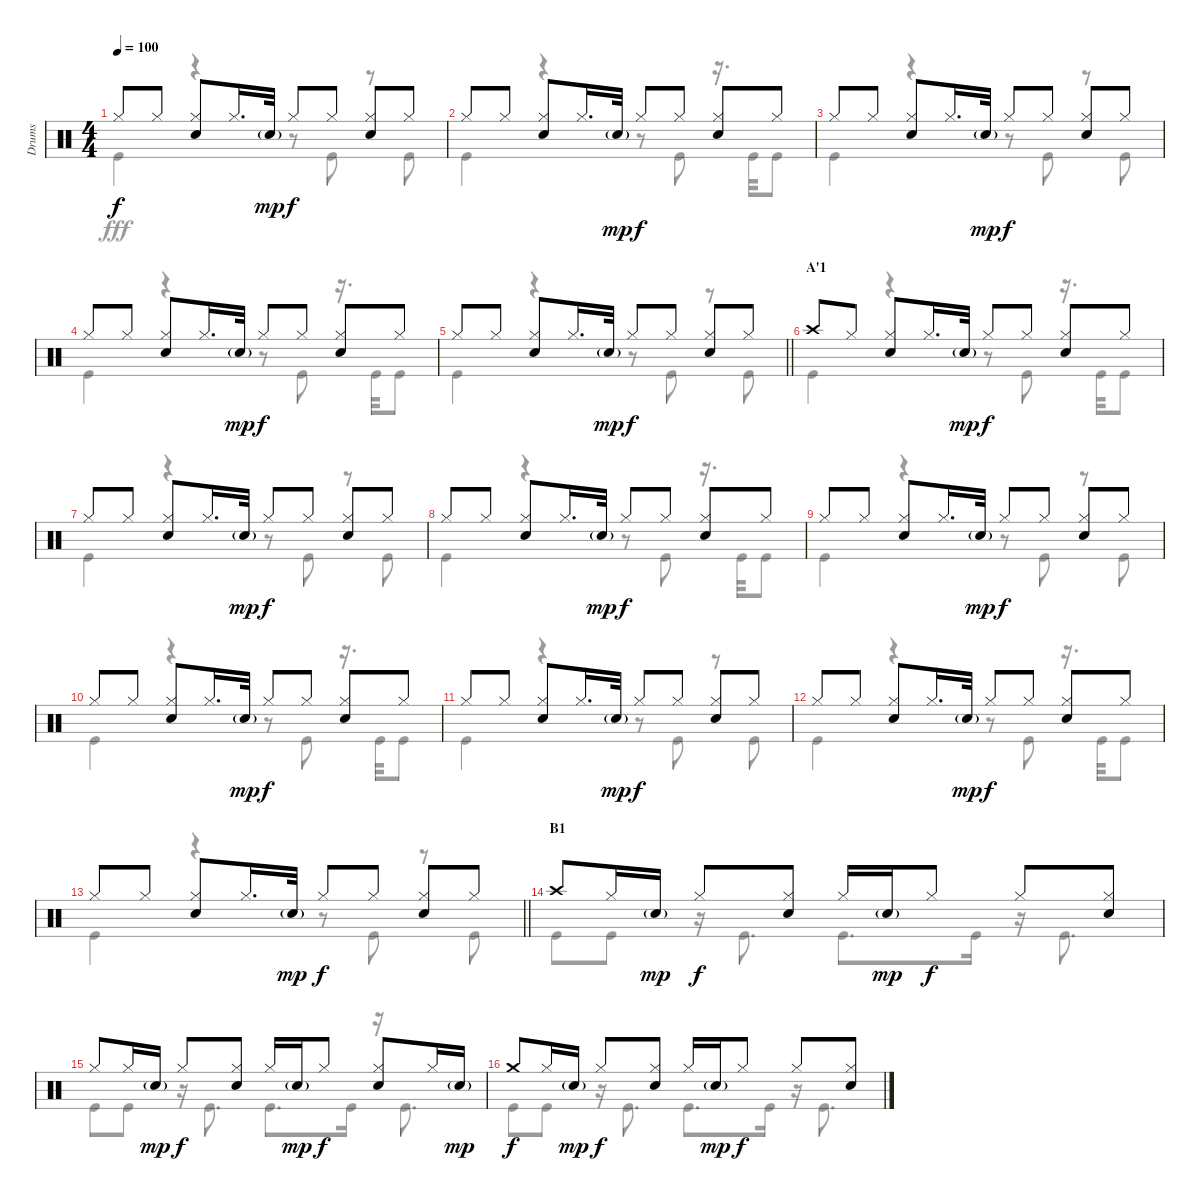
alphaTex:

\track ("Drums" "Drums") {instrument percussion}
\staff {score}
\articulation defaults
\voice
\ts (4 4)
\tempo 100
\clef neutral
\ks c "Hi-Hat (closed)".8{dy f} "Hi-Hat (closed)".8
("Hi-Hat (closed)" "Snare (hit) 2").8 "Hi-Hat (closed)".16{d} "Snare (hit) 2"{g}.32{dy mp} "Hi-Hat (closed)".8{dy f} "Hi-Hat (closed)".8 ("Hi-Hat (closed)" "Snare (hit) 2").8 "Hi-Hat (closed)".8 |
"Hi-Hat (closed)".8 "Hi-Hat (closed)".8 ("Hi-Hat (closed)" "Snare (hit) 2").8 "Hi-Hat (closed)".16{d} "Snare (hit) 2"{g}.32{dy mp} "Hi-Hat (closed)".8{dy f} "Hi-Hat (closed)".8 ("Hi-Hat (closed)" "Snare (hit) 2").8 "Hi-Hat (closed)".8 |
"Hi-Hat (closed)".8 "Hi-Hat (closed)".8 ("Hi-Hat (closed)" "Snare (hit) 2").8 "Hi-Hat (closed)".16{d} "Snare (hit) 2"{g}.32{dy mp} "Hi-Hat (closed)".8{dy f} "Hi-Hat (closed)".8 ("Hi-Hat (closed)" "Snare (hit) 2").8 "Hi-Hat (closed)".8 |
"Hi-Hat (closed)".8 "Hi-Hat (closed)".8 ("Hi-Hat (closed)" "Snare (hit) 2").8 "Hi-Hat (closed)".16{d} "Snare (hit) 2"{g}.32{dy mp} "Hi-Hat (closed)".8{dy f} "Hi-Hat (closed)".8 ("Hi-Hat (closed)" "Snare (hit) 2").8 "Hi-Hat (closed)".8 |
\barLineRight lightlight "Hi-Hat (closed)".8 "Hi-Hat (closed)".8
("Hi-Hat (closed)" "Snare (hit) 2").8 "Hi-Hat (closed)".16{d} "Snare (hit) 2"{g}.32{dy mp} "Hi-Hat (closed)".8{dy f} "Hi-Hat (closed)".8 ("Hi-Hat (closed)" "Snare (hit) 2").8 "Hi-Hat (closed)".8 |
\section ("" "A'1")
"Crash high (hit)".8 "Hi-Hat (closed)".8 ("Hi-Hat (closed)" "Snare (hit) 2").8 "Hi-Hat (closed)".16{d} "Snare (hit) 2"{g}.32{dy mp} "Hi-Hat (closed)".8{dy f} "Hi-Hat (closed)".8 ("Hi-Hat (closed)" "Snare (hit) 2").8 "Hi-Hat (closed)".8 |
"Hi-Hat (closed)".8 "Hi-Hat (closed)".8 ("Hi-Hat (closed)" "Snare (hit) 2").8 "Hi-Hat (closed)".16{d} "Snare (hit) 2"{g}.32{dy mp} "Hi-Hat (closed)".8{dy f} "Hi-Hat (closed)".8 ("Hi-Hat (closed)" "Snare (hit) 2").8 "Hi-Hat (closed)".8 |
"Hi-Hat (closed)".8 "Hi-Hat (closed)".8 ("Hi-Hat (closed)" "Snare (hit) 2").8 "Hi-Hat (closed)".16{d} "Snare (hit) 2"{g}.32{dy mp} "Hi-Hat (closed)".8{dy f} "Hi-Hat (closed)".8 ("Hi-Hat (closed)" "Snare (hit) 2").8 "Hi-Hat (closed)".8 |
"Hi-Hat (closed)".8 "Hi-Hat (closed)".8 ("Hi-Hat (closed)" "Snare (hit) 2").8 "Hi-Hat (closed)".16{d} "Snare (hit) 2"{g}.32{dy mp} "Hi-Hat (closed)".8{dy f} "Hi-Hat (closed)".8 ("Hi-Hat (closed)" "Snare (hit) 2").8 "Hi-Hat (closed)".8 |
"Hi-Hat (closed)".8 "Hi-Hat (closed)".8 ("Hi-Hat (closed)" "Snare (hit) 2").8 "Hi-Hat (closed)".16{d} "Snare (hit) 2"{g}.32{dy mp} "Hi-Hat (closed)".8{dy f} "Hi-Hat (closed)".8 ("Hi-Hat (closed)" "Snare (hit) 2").8 "Hi-Hat (closed)".8 |
"Hi-Hat (closed)".8 "Hi-Hat (closed)".8 ("Hi-Hat (closed)" "Snare (hit) 2").8 "Hi-Hat (closed)".16{d} "Snare (hit) 2"{g}.32{dy mp} "Hi-Hat (closed)".8{dy f} "Hi-Hat (closed)".8 ("Hi-Hat (closed)" "Snare (hit) 2").8 "Hi-Hat (closed)".8 |
"Hi-Hat (closed)".8 "Hi-Hat (closed)".8 ("Hi-Hat (closed)" "Snare (hit) 2").8 "Hi-Hat (closed)".16{d} "Snare (hit) 2"{g}.32{dy mp} "Hi-Hat (closed)".8{dy f} "Hi-Hat (closed)".8 ("Hi-Hat (closed)" "Snare (hit) 2").8 "Hi-Hat (closed)".8 |
\barLineRight lightlight "Hi-Hat (closed)".8 "Hi-Hat (closed)".8
("Hi-Hat (closed)" "Snare (hit) 2").8 "Hi-Hat (closed)".16{d} "Snare (hit) 2"{g}.32{dy mp} "Hi-Hat (closed)".8{dy f} "Hi-Hat (closed)".8 ("Hi-Hat (closed)" "Snare (hit) 2").8 "Hi-Hat (closed)".8 |
\section ("" "B1")
"Crash high (hit)".8 "Hi-Hat (closed)".16 "Snare (hit) 2"{g}.16{dy mp} "Hi-Hat (closed)".8{dy f} ("Hi-Hat (closed)" "Snare (hit) 2").8 "Hi-Hat (closed)".16 "Snare (hit) 2"{g}.16{dy mp} "Hi-Hat (closed)".8{dy f} "Hi-Hat (closed)".8 ("Hi-Hat (closed)" "Snare (hit) 2").8 |
"Hi-Hat (closed)".8 "Hi-Hat (closed)".16 "Snare (hit) 2"{g}.16{dy mp} "Hi-Hat (closed)".8{dy f} ("Hi-Hat (closed)" "Snare (hit) 2").8 "Hi-Hat (closed)".16 "Snare (hit) 2"{g}.16{dy mp} "Hi-Hat (closed)".8{dy f} ("Hi-Hat (closed)" "Snare (hit) 2").8 "Hi-Hat (closed)".16 "Snare (hit) 2"{g}.16{dy mp} |
"Crash medium (hit)".8{dy f} "Hi-Hat (closed)".16 "Snare (hit) 2"{g}.16{dy mp} "Hi-Hat (closed)".8{dy f} ("Hi-Hat (closed)" "Snare (hit) 2").8 "Hi-Hat (closed)".16 "Snare (hit) 2"{g}.16{dy mp} "Hi-Hat (closed)".8{dy f} "Hi-Hat (closed)".8 ("Hi-Hat (closed)" "Snare (hit) 2").8
\voice
\clef neutral
\ottava regular
\simile none
\ks c "Kick (hit)".4{dy fff}
r.4 r.8 "Kick (hit)".8 r.8 "Kick (hit)".8 |
"Kick (hit)".4 r.4 r.8 "Kick (hit)".8 r.16{d} "Kick (hit)".32 "Kick (hit)".8 |
"Kick (hit)".4 r.4 r.8 "Kick (hit)".8 r.8 "Kick (hit)".8 |
"Kick (hit)".4 r.4 r.8 "Kick (hit)".8 r.16{d} "Kick (hit)".32 "Kick (hit)".8 |
\barLineRight lightlight "Kick (hit)".4
r.4 r.8 "Kick (hit)".8 r.8 "Kick (hit)".8 |
"Kick (hit)".4 r.4 r.8 "Kick (hit)".8 r.16{d} "Kick (hit)".32 "Kick (hit)".8 |
"Kick (hit)".4 r.4 r.8 "Kick (hit)".8 r.8 "Kick (hit)".8 |
"Kick (hit)".4 r.4 r.8 "Kick (hit)".8 r.16{d} "Kick (hit)".32 "Kick (hit)".8 |
"Kick (hit)".4 r.4 r.8 "Kick (hit)".8 r.8 "Kick (hit)".8 |
"Kick (hit)".4 r.4 r.8 "Kick (hit)".8 r.16{d} "Kick (hit)".32 "Kick (hit)".8 |
"Kick (hit)".4 r.4 r.8 "Kick (hit)".8 r.8 "Kick (hit)".8 |
"Kick (hit)".4 r.4 r.8 "Kick (hit)".8 r.16{d} "Kick (hit)".32 "Kick (hit)".8 |
\barLineRight lightlight "Kick (hit)".4
r.4 r.8 "Kick (hit)".8 r.8 "Kick (hit)".8 |
"Kick (hit)".8 "Kick (hit)".8 r.16 "Kick (hit)".8{d} "Kick (hit)".8{d} "Kick (hit)".16 r.16 "Kick (hit)".8{d} |
"Kick (hit)".8 "Kick (hit)".8 r.16 "Kick (hit)".8{d} "Kick (hit)".8{d} "Kick (hit)".16 r.16 "Kick (hit)".8{d} |
"Kick (hit)".8 "Kick (hit)".8 r.16 "Kick (hit)".8{d} "Kick (hit)".8{d} "Kick (hit)".16 r.16 "Kick (hit)".8{d}
